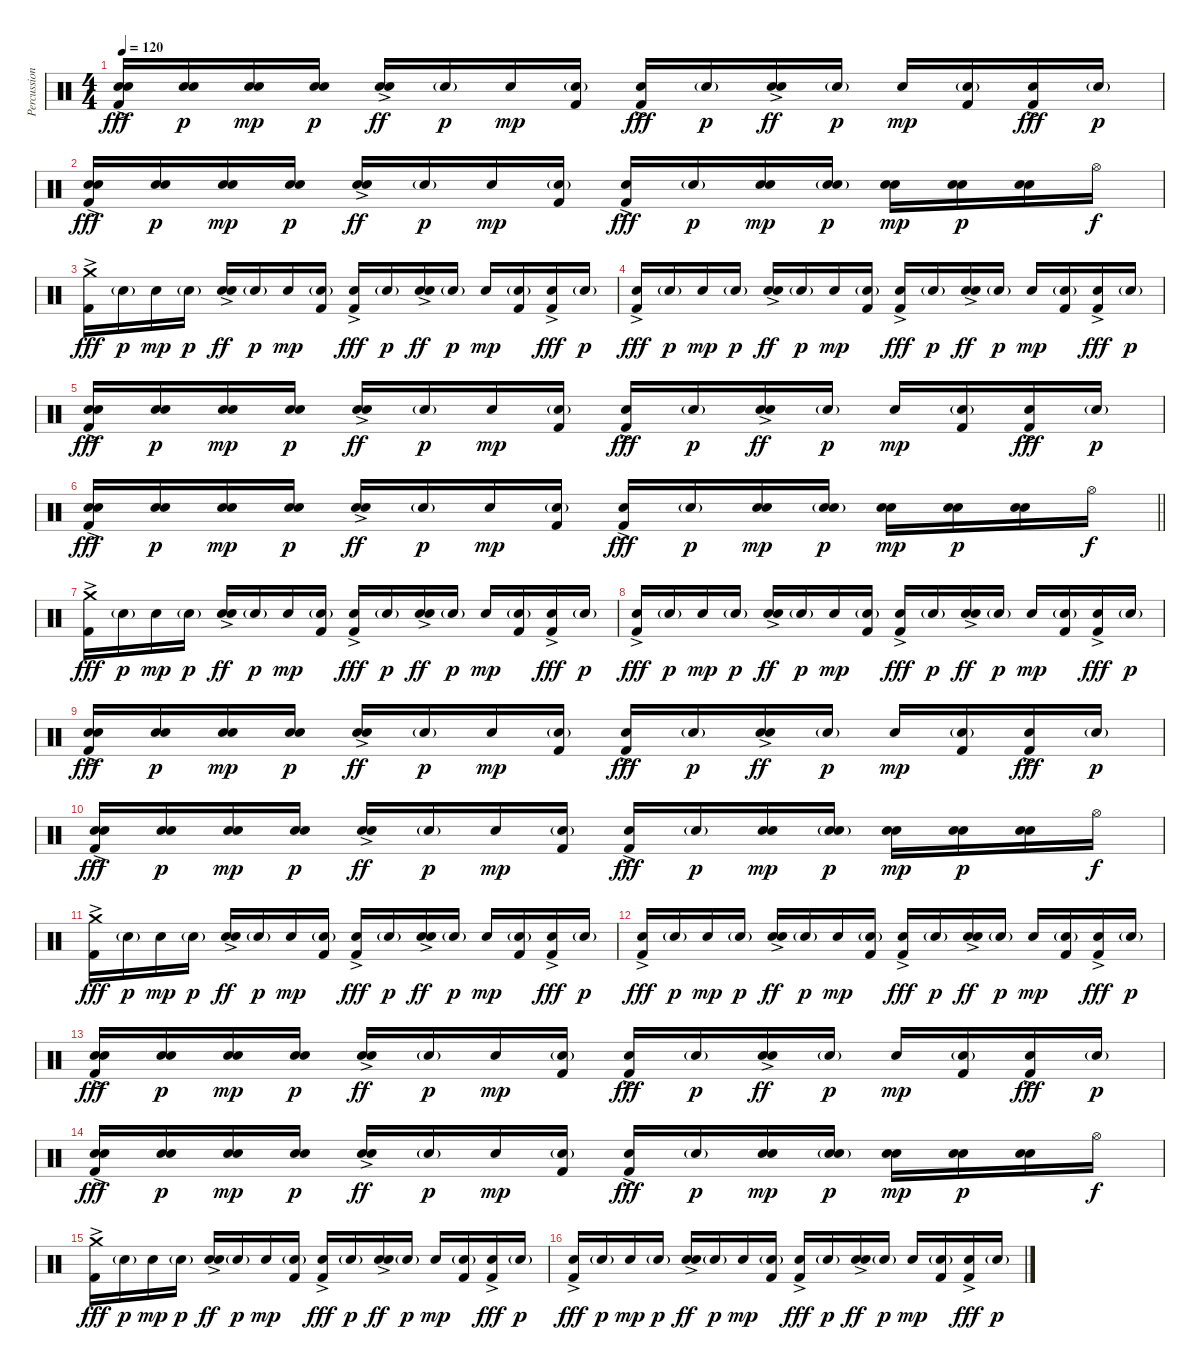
\track ("Percussion" "Percussion") {instrument percussion}
\staff {score}
\articulation defaults
\ts (4 4)
\tempo 120
\clef neutral
\ks c
("Electric Snare (hit)" "Snare (hit) 2" "Kick (hit) 2"{ac}).16{dy fff} ("Electric Snare (hit)" "Snare (hit) 2").16{dy p} ("Electric Snare (hit)" "Snare (hit) 2").16{dy mp} ("Electric Snare (hit)" "Snare (hit) 2").16{dy p} ("Electric Snare (hit)"{ac} "Snare (hit) 2").16{dy ff} "Electric Snare (hit)"{g}.16{dy p} "Electric Snare (hit)".16{dy mp} ("Electric Snare (hit)"{g} "Kick (hit) 2").16 ("Electric Snare (hit)" "Kick (hit) 2"{ac}).16{dy fff} "Electric Snare (hit)"{g}.16{dy p} ("Electric Snare (hit)"{ac} "Snare (hit) 2").16{dy ff} "Electric Snare (hit)"{g}.16{dy p} "Electric Snare (hit)".16{dy mp} ("Electric Snare (hit)"{g} "Kick (hit) 2").16 ("Electric Snare (hit)" "Kick (hit) 2"{ac}).16{dy fff} "Electric Snare (hit)"{g}.16{dy p} |
("Electric Snare (hit)" "Snare (hit) 2" "Kick (hit) 2"{ac}).16{dy fff} ("Electric Snare (hit)" "Snare (hit) 2").16{dy p} ("Electric Snare (hit)" "Snare (hit) 2").16{dy mp} ("Electric Snare (hit)" "Snare (hit) 2").16{dy p} ("Electric Snare (hit)"{ac} "Snare (hit) 2").16{dy ff} "Electric Snare (hit)"{g}.16{dy p} "Electric Snare (hit)".16{dy mp} ("Electric Snare (hit)"{g} "Kick (hit) 2").16 ("Electric Snare (hit)" "Kick (hit) 2"{ac}).16{dy fff} "Electric Snare (hit)"{g}.16{dy p} ("Electric Snare (hit)" "Snare (hit) 2").16{dy mp} ("Electric Snare (hit)"{g} "Snare (hit) 2").16{dy p} ("Electric Snare (hit)" "Snare (hit) 2").16{dy mp} ("Electric Snare (hit)" "Snare (hit) 2").16{dy p} ("Electric Snare (hit)" "Snare (hit) 2").16 "Hi-Hat (open)".16{dy f} |
("Crash medium (hit)" "Kick (hit) 2"{ac}).16{dy fff} "Electric Snare (hit)"{g}.16{dy p} "Electric Snare (hit)".16{dy mp} "Electric Snare (hit)"{g}.16{dy p} ("Electric Snare (hit)"{ac} "Snare (hit) 2").16{dy ff} "Electric Snare (hit)"{g}.16{dy p} "Electric Snare (hit)".16{dy mp} ("Electric Snare (hit)"{g} "Kick (hit) 2").16 ("Electric Snare (hit)" "Kick (hit) 2"{ac}).16{dy fff} "Electric Snare (hit)"{g}.16{dy p} ("Electric Snare (hit)"{ac} "Snare (hit) 2").16{dy ff} "Electric Snare (hit)"{g}.16{dy p} "Electric Snare (hit)".16{dy mp} ("Electric Snare (hit)"{g} "Kick (hit) 2").16 ("Electric Snare (hit)" "Kick (hit) 2"{ac}).16{dy fff} "Electric Snare (hit)"{g}.16{dy p} |
("Electric Snare (hit)" "Kick (hit) 2"{ac}).16{dy fff} "Electric Snare (hit)"{g}.16{dy p} "Electric Snare (hit)".16{dy mp} "Electric Snare (hit)"{g}.16{dy p} ("Electric Snare (hit)"{ac} "Snare (hit) 2").16{dy ff} "Electric Snare (hit)"{g}.16{dy p} "Electric Snare (hit)".16{dy mp} ("Electric Snare (hit)"{g} "Kick (hit) 2").16 ("Electric Snare (hit)" "Kick (hit) 2"{ac}).16{dy fff} "Electric Snare (hit)"{g}.16{dy p} ("Electric Snare (hit)"{ac} "Snare (hit) 2").16{dy ff} "Electric Snare (hit)"{g}.16{dy p} "Electric Snare (hit)".16{dy mp} ("Electric Snare (hit)"{g} "Kick (hit) 2").16 ("Electric Snare (hit)" "Kick (hit) 2"{ac}).16{dy fff} "Electric Snare (hit)"{g}.16{dy p} |
("Electric Snare (hit)" "Snare (hit) 2" "Kick (hit) 2"{ac}).16{dy fff} ("Electric Snare (hit)" "Snare (hit) 2").16{dy p} ("Electric Snare (hit)" "Snare (hit) 2").16{dy mp} ("Electric Snare (hit)" "Snare (hit) 2").16{dy p} ("Electric Snare (hit)"{ac} "Snare (hit) 2").16{dy ff} "Electric Snare (hit)"{g}.16{dy p} "Electric Snare (hit)".16{dy mp} ("Electric Snare (hit)"{g} "Kick (hit) 2").16 ("Electric Snare (hit)" "Kick (hit) 2"{ac}).16{dy fff} "Electric Snare (hit)"{g}.16{dy p} ("Electric Snare (hit)"{ac} "Snare (hit) 2").16{dy ff} "Electric Snare (hit)"{g}.16{dy p} "Electric Snare (hit)".16{dy mp} ("Electric Snare (hit)"{g} "Kick (hit) 2").16 ("Electric Snare (hit)" "Kick (hit) 2"{ac}).16{dy fff} "Electric Snare (hit)"{g}.16{dy p} |
\barLineRight lightlight
("Electric Snare (hit)" "Snare (hit) 2" "Kick (hit) 2"{ac}).16{dy fff} ("Electric Snare (hit)" "Snare (hit) 2").16{dy p} ("Electric Snare (hit)" "Snare (hit) 2").16{dy mp} ("Electric Snare (hit)" "Snare (hit) 2").16{dy p} ("Electric Snare (hit)"{ac} "Snare (hit) 2").16{dy ff} "Electric Snare (hit)"{g}.16{dy p} "Electric Snare (hit)".16{dy mp} ("Electric Snare (hit)"{g} "Kick (hit) 2").16 ("Electric Snare (hit)" "Kick (hit) 2"{ac}).16{dy fff} "Electric Snare (hit)"{g}.16{dy p} ("Electric Snare (hit)" "Snare (hit) 2").16{dy mp} ("Electric Snare (hit)"{g} "Snare (hit) 2").16{dy p} ("Electric Snare (hit)" "Snare (hit) 2").16{dy mp} ("Electric Snare (hit)" "Snare (hit) 2").16{dy p} ("Electric Snare (hit)" "Snare (hit) 2").16 "Hi-Hat (open)".16{dy f} |
("Crash medium (hit)" "Kick (hit) 2"{ac}).16{dy fff} "Electric Snare (hit)"{g}.16{dy p} "Electric Snare (hit)".16{dy mp} "Electric Snare (hit)"{g}.16{dy p} ("Electric Snare (hit)"{ac} "Snare (hit) 2").16{dy ff} "Electric Snare (hit)"{g}.16{dy p} "Electric Snare (hit)".16{dy mp} ("Electric Snare (hit)"{g} "Kick (hit) 2").16 ("Electric Snare (hit)" "Kick (hit) 2"{ac}).16{dy fff} "Electric Snare (hit)"{g}.16{dy p} ("Electric Snare (hit)"{ac} "Snare (hit) 2").16{dy ff} "Electric Snare (hit)"{g}.16{dy p} "Electric Snare (hit)".16{dy mp} ("Electric Snare (hit)"{g} "Kick (hit) 2").16 ("Electric Snare (hit)" "Kick (hit) 2"{ac}).16{dy fff} "Electric Snare (hit)"{g}.16{dy p} |
("Electric Snare (hit)" "Kick (hit) 2"{ac}).16{dy fff} "Electric Snare (hit)"{g}.16{dy p} "Electric Snare (hit)".16{dy mp} "Electric Snare (hit)"{g}.16{dy p} ("Electric Snare (hit)"{ac} "Snare (hit) 2").16{dy ff} "Electric Snare (hit)"{g}.16{dy p} "Electric Snare (hit)".16{dy mp} ("Electric Snare (hit)"{g} "Kick (hit) 2").16 ("Electric Snare (hit)" "Kick (hit) 2"{ac}).16{dy fff} "Electric Snare (hit)"{g}.16{dy p} ("Electric Snare (hit)"{ac} "Snare (hit) 2").16{dy ff} "Electric Snare (hit)"{g}.16{dy p} "Electric Snare (hit)".16{dy mp} ("Electric Snare (hit)"{g} "Kick (hit) 2").16 ("Electric Snare (hit)" "Kick (hit) 2"{ac}).16{dy fff} "Electric Snare (hit)"{g}.16{dy p} |
("Electric Snare (hit)" "Snare (hit) 2" "Kick (hit) 2"{ac}).16{dy fff} ("Electric Snare (hit)" "Snare (hit) 2").16{dy p} ("Electric Snare (hit)" "Snare (hit) 2").16{dy mp} ("Electric Snare (hit)" "Snare (hit) 2").16{dy p} ("Electric Snare (hit)"{ac} "Snare (hit) 2").16{dy ff} "Electric Snare (hit)"{g}.16{dy p} "Electric Snare (hit)".16{dy mp} ("Electric Snare (hit)"{g} "Kick (hit) 2").16 ("Electric Snare (hit)" "Kick (hit) 2"{ac}).16{dy fff} "Electric Snare (hit)"{g}.16{dy p} ("Electric Snare (hit)"{ac} "Snare (hit) 2").16{dy ff} "Electric Snare (hit)"{g}.16{dy p} "Electric Snare (hit)".16{dy mp} ("Electric Snare (hit)"{g} "Kick (hit) 2").16 ("Electric Snare (hit)" "Kick (hit) 2"{ac}).16{dy fff} "Electric Snare (hit)"{g}.16{dy p} |
("Electric Snare (hit)" "Snare (hit) 2" "Kick (hit) 2"{ac}).16{dy fff} ("Electric Snare (hit)" "Snare (hit) 2").16{dy p} ("Electric Snare (hit)" "Snare (hit) 2").16{dy mp} ("Electric Snare (hit)" "Snare (hit) 2").16{dy p} ("Electric Snare (hit)"{ac} "Snare (hit) 2").16{dy ff} "Electric Snare (hit)"{g}.16{dy p} "Electric Snare (hit)".16{dy mp} ("Electric Snare (hit)"{g} "Kick (hit) 2").16 ("Electric Snare (hit)" "Kick (hit) 2"{ac}).16{dy fff} "Electric Snare (hit)"{g}.16{dy p} ("Electric Snare (hit)" "Snare (hit) 2").16{dy mp} ("Electric Snare (hit)"{g} "Snare (hit) 2").16{dy p} ("Electric Snare (hit)" "Snare (hit) 2").16{dy mp} ("Electric Snare (hit)" "Snare (hit) 2").16{dy p} ("Electric Snare (hit)" "Snare (hit) 2").16 "Hi-Hat (open)".16{dy f} |
("Crash medium (hit)" "Kick (hit) 2"{ac}).16{dy fff} "Electric Snare (hit)"{g}.16{dy p} "Electric Snare (hit)".16{dy mp} "Electric Snare (hit)"{g}.16{dy p} ("Electric Snare (hit)"{ac} "Snare (hit) 2").16{dy ff} "Electric Snare (hit)"{g}.16{dy p} "Electric Snare (hit)".16{dy mp} ("Electric Snare (hit)"{g} "Kick (hit) 2").16 ("Electric Snare (hit)" "Kick (hit) 2"{ac}).16{dy fff} "Electric Snare (hit)"{g}.16{dy p} ("Electric Snare (hit)"{ac} "Snare (hit) 2").16{dy ff} "Electric Snare (hit)"{g}.16{dy p} "Electric Snare (hit)".16{dy mp} ("Electric Snare (hit)"{g} "Kick (hit) 2").16 ("Electric Snare (hit)" "Kick (hit) 2"{ac}).16{dy fff} "Electric Snare (hit)"{g}.16{dy p} |
("Electric Snare (hit)" "Kick (hit) 2"{ac}).16{dy fff} "Electric Snare (hit)"{g}.16{dy p} "Electric Snare (hit)".16{dy mp} "Electric Snare (hit)"{g}.16{dy p} ("Electric Snare (hit)"{ac} "Snare (hit) 2").16{dy ff} "Electric Snare (hit)"{g}.16{dy p} "Electric Snare (hit)".16{dy mp} ("Electric Snare (hit)"{g} "Kick (hit) 2").16 ("Electric Snare (hit)" "Kick (hit) 2"{ac}).16{dy fff} "Electric Snare (hit)"{g}.16{dy p} ("Electric Snare (hit)"{ac} "Snare (hit) 2").16{dy ff} "Electric Snare (hit)"{g}.16{dy p} "Electric Snare (hit)".16{dy mp} ("Electric Snare (hit)"{g} "Kick (hit) 2").16 ("Electric Snare (hit)" "Kick (hit) 2"{ac}).16{dy fff} "Electric Snare (hit)"{g}.16{dy p} |
("Electric Snare (hit)" "Snare (hit) 2" "Kick (hit) 2"{ac}).16{dy fff} ("Electric Snare (hit)" "Snare (hit) 2").16{dy p} ("Electric Snare (hit)" "Snare (hit) 2").16{dy mp} ("Electric Snare (hit)" "Snare (hit) 2").16{dy p} ("Electric Snare (hit)"{ac} "Snare (hit) 2").16{dy ff} "Electric Snare (hit)"{g}.16{dy p} "Electric Snare (hit)".16{dy mp} ("Electric Snare (hit)"{g} "Kick (hit) 2").16 ("Electric Snare (hit)" "Kick (hit) 2"{ac}).16{dy fff} "Electric Snare (hit)"{g}.16{dy p} ("Electric Snare (hit)"{ac} "Snare (hit) 2").16{dy ff} "Electric Snare (hit)"{g}.16{dy p} "Electric Snare (hit)".16{dy mp} ("Electric Snare (hit)"{g} "Kick (hit) 2").16 ("Electric Snare (hit)" "Kick (hit) 2"{ac}).16{dy fff} "Electric Snare (hit)"{g}.16{dy p} |
("Electric Snare (hit)" "Snare (hit) 2" "Kick (hit) 2"{ac}).16{dy fff} ("Electric Snare (hit)" "Snare (hit) 2").16{dy p} ("Electric Snare (hit)" "Snare (hit) 2").16{dy mp} ("Electric Snare (hit)" "Snare (hit) 2").16{dy p} ("Electric Snare (hit)"{ac} "Snare (hit) 2").16{dy ff} "Electric Snare (hit)"{g}.16{dy p} "Electric Snare (hit)".16{dy mp} ("Electric Snare (hit)"{g} "Kick (hit) 2").16 ("Electric Snare (hit)" "Kick (hit) 2"{ac}).16{dy fff} "Electric Snare (hit)"{g}.16{dy p} ("Electric Snare (hit)" "Snare (hit) 2").16{dy mp} ("Electric Snare (hit)"{g} "Snare (hit) 2").16{dy p} ("Electric Snare (hit)" "Snare (hit) 2").16{dy mp} ("Electric Snare (hit)" "Snare (hit) 2").16{dy p} ("Electric Snare (hit)" "Snare (hit) 2").16 "Hi-Hat (open)".16{dy f} |
("Crash medium (hit)" "Kick (hit) 2"{ac}).16{dy fff} "Electric Snare (hit)"{g}.16{dy p} "Electric Snare (hit)".16{dy mp} "Electric Snare (hit)"{g}.16{dy p} ("Electric Snare (hit)"{ac} "Snare (hit) 2").16{dy ff} "Electric Snare (hit)"{g}.16{dy p} "Electric Snare (hit)".16{dy mp} ("Electric Snare (hit)"{g} "Kick (hit) 2").16 ("Electric Snare (hit)" "Kick (hit) 2"{ac}).16{dy fff} "Electric Snare (hit)"{g}.16{dy p} ("Electric Snare (hit)"{ac} "Snare (hit) 2").16{dy ff} "Electric Snare (hit)"{g}.16{dy p} "Electric Snare (hit)".16{dy mp} ("Electric Snare (hit)"{g} "Kick (hit) 2").16 ("Electric Snare (hit)" "Kick (hit) 2"{ac}).16{dy fff} "Electric Snare (hit)"{g}.16{dy p} |
("Electric Snare (hit)" "Kick (hit) 2"{ac}).16{dy fff} "Electric Snare (hit)"{g}.16{dy p} "Electric Snare (hit)".16{dy mp} "Electric Snare (hit)"{g}.16{dy p} ("Electric Snare (hit)"{ac} "Snare (hit) 2").16{dy ff} "Electric Snare (hit)"{g}.16{dy p} "Electric Snare (hit)".16{dy mp} ("Electric Snare (hit)"{g} "Kick (hit) 2").16 ("Electric Snare (hit)" "Kick (hit) 2"{ac}).16{dy fff} "Electric Snare (hit)"{g}.16{dy p} ("Electric Snare (hit)"{ac} "Snare (hit) 2").16{dy ff} "Electric Snare (hit)"{g}.16{dy p} "Electric Snare (hit)".16{dy mp} ("Electric Snare (hit)"{g} "Kick (hit) 2").16 ("Electric Snare (hit)" "Kick (hit) 2"{ac}).16{dy fff} "Electric Snare (hit)"{g}.16{dy p}
